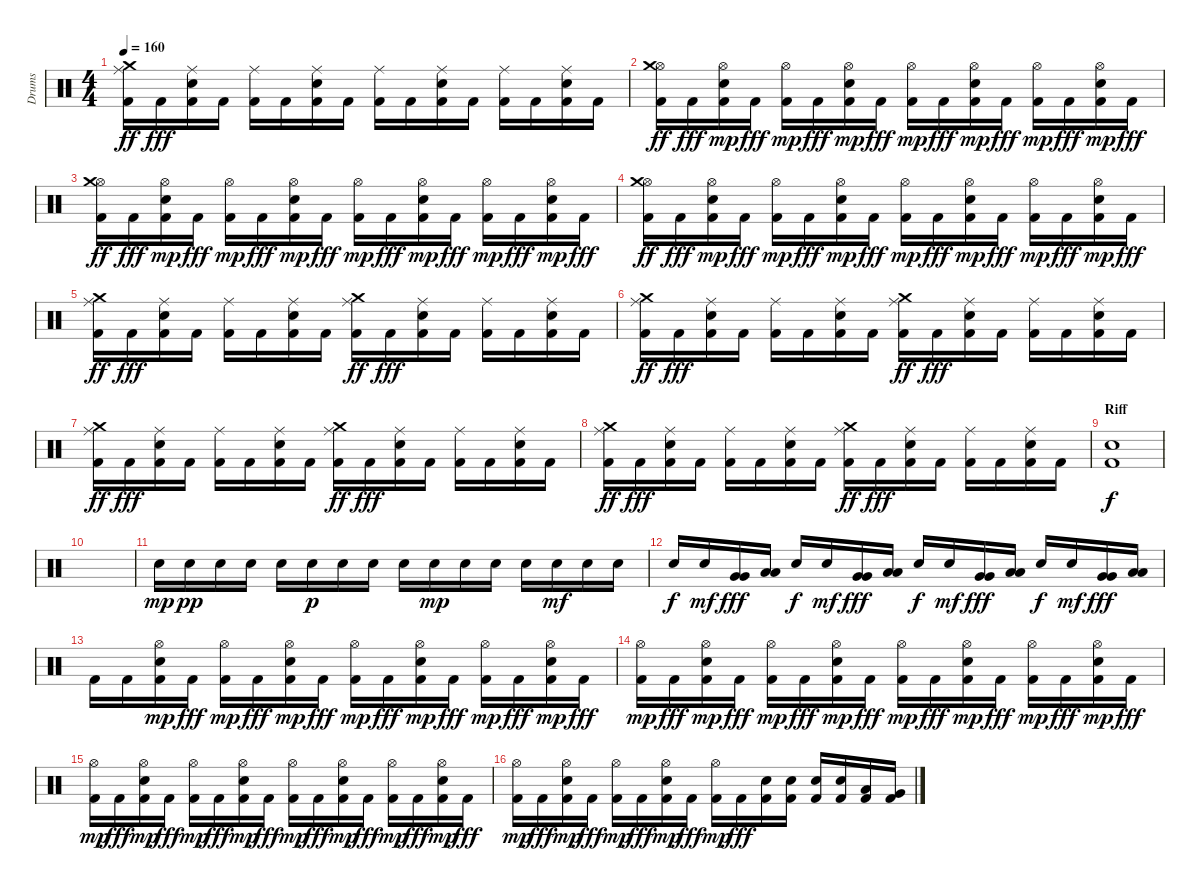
\track ("Drums" "Drums") {instrument percussion}
\staff {score}
\articulation defaults
\ts (4 4)
\tempo 160
\clef neutral
\ks c
("Kick (hit) 2" "Ride (middle)" "Crash medium (hit)").16{dy ff} "Kick (hit) 2".16{dy fff} ("Kick (hit) 2" "Ride (middle)" "Snare (hit) 2").16 "Kick (hit) 2".16 ("Kick (hit) 2" "Ride (middle)").16 "Kick (hit) 2".16 ("Kick (hit) 2" "Ride (middle)" "Snare (hit) 2").16 "Kick (hit) 2".16 ("Kick (hit) 2" "Ride (middle)").16 "Kick (hit) 2".16 ("Kick (hit) 2" "Ride (middle)" "Snare (hit) 2").16 "Kick (hit) 2".16 ("Kick (hit) 2" "Ride (middle)").16 "Kick (hit) 2".16 ("Kick (hit) 2" "Ride (middle)" "Snare (hit) 2").16 "Kick (hit) 2".16 |
("Kick (hit) 2" "Hi-Hat (open)" "Crash medium (hit)").16{dy ff} "Kick (hit) 2".16{dy fff} ("Kick (hit) 2" "Hi-Hat (open)" "Snare (hit) 2").16{dy mp} "Kick (hit) 2".16{dy fff} ("Kick (hit) 2" "Hi-Hat (open)").16{dy mp} "Kick (hit) 2".16{dy fff} ("Kick (hit) 2" "Hi-Hat (open)" "Snare (hit) 2").16{dy mp} "Kick (hit) 2".16{dy fff} ("Kick (hit) 2" "Hi-Hat (open)").16{dy mp} "Kick (hit) 2".16{dy fff} ("Kick (hit) 2" "Hi-Hat (open)" "Snare (hit) 2").16{dy mp} "Kick (hit) 2".16{dy fff} ("Kick (hit) 2" "Hi-Hat (open)").16{dy mp} "Kick (hit) 2".16{dy fff} ("Kick (hit) 2" "Hi-Hat (open)" "Snare (hit) 2").16{dy mp} "Kick (hit) 2".16{dy fff} |
("Kick (hit) 2" "Hi-Hat (open)" "Crash medium (hit)").16{dy ff} "Kick (hit) 2".16{dy fff} ("Kick (hit) 2" "Hi-Hat (open)" "Snare (hit) 2").16{dy mp} "Kick (hit) 2".16{dy fff} ("Kick (hit) 2" "Hi-Hat (open)").16{dy mp} "Kick (hit) 2".16{dy fff} ("Kick (hit) 2" "Hi-Hat (open)" "Snare (hit) 2").16{dy mp} "Kick (hit) 2".16{dy fff} ("Kick (hit) 2" "Hi-Hat (open)").16{dy mp} "Kick (hit) 2".16{dy fff} ("Kick (hit) 2" "Hi-Hat (open)" "Snare (hit) 2").16{dy mp} "Kick (hit) 2".16{dy fff} ("Kick (hit) 2" "Hi-Hat (open)").16{dy mp} "Kick (hit) 2".16{dy fff} ("Kick (hit) 2" "Hi-Hat (open)" "Snare (hit) 2").16{dy mp} "Kick (hit) 2".16{dy fff} |
("Kick (hit) 2" "Hi-Hat (open)" "Crash medium (hit)").16{dy ff} "Kick (hit) 2".16{dy fff} ("Kick (hit) 2" "Hi-Hat (open)" "Snare (hit) 2").16{dy mp} "Kick (hit) 2".16{dy fff} ("Kick (hit) 2" "Hi-Hat (open)").16{dy mp} "Kick (hit) 2".16{dy fff} ("Kick (hit) 2" "Hi-Hat (open)" "Snare (hit) 2").16{dy mp} "Kick (hit) 2".16{dy fff} ("Kick (hit) 2" "Hi-Hat (open)").16{dy mp} "Kick (hit) 2".16{dy fff} ("Kick (hit) 2" "Hi-Hat (open)" "Snare (hit) 2").16{dy mp} "Kick (hit) 2".16{dy fff} ("Kick (hit) 2" "Hi-Hat (open)").16{dy mp} "Kick (hit) 2".16{dy fff} ("Kick (hit) 2" "Hi-Hat (open)" "Snare (hit) 2").16{dy mp} "Kick (hit) 2".16{dy fff} |
("Kick (hit) 2" "Ride (middle)" "Crash medium (hit)").16{dy ff} "Kick (hit) 2".16{dy fff} ("Kick (hit) 2" "Ride (middle)" "Snare (hit) 2").16 "Kick (hit) 2".16 ("Kick (hit) 2" "Ride (middle)").16 "Kick (hit) 2".16 ("Kick (hit) 2" "Ride (middle)" "Snare (hit) 2").16 "Kick (hit) 2".16 ("Kick (hit) 2" "Ride (middle)" "Crash medium (hit)").16{dy ff} "Kick (hit) 2".16{dy fff} ("Kick (hit) 2" "Ride (middle)" "Snare (hit) 2").16 "Kick (hit) 2".16 ("Kick (hit) 2" "Ride (middle)").16 "Kick (hit) 2".16 ("Kick (hit) 2" "Ride (middle)" "Snare (hit) 2").16 "Kick (hit) 2".16 |
("Kick (hit) 2" "Ride (middle)" "Crash medium (hit)").16{dy ff} "Kick (hit) 2".16{dy fff} ("Kick (hit) 2" "Ride (middle)" "Snare (hit) 2").16 "Kick (hit) 2".16 ("Kick (hit) 2" "Ride (middle)").16 "Kick (hit) 2".16 ("Kick (hit) 2" "Ride (middle)" "Snare (hit) 2").16 "Kick (hit) 2".16 ("Kick (hit) 2" "Ride (middle)" "Crash medium (hit)").16{dy ff} "Kick (hit) 2".16{dy fff} ("Kick (hit) 2" "Ride (middle)" "Snare (hit) 2").16 "Kick (hit) 2".16 ("Kick (hit) 2" "Ride (middle)").16 "Kick (hit) 2".16 ("Kick (hit) 2" "Ride (middle)" "Snare (hit) 2").16 "Kick (hit) 2".16 |
("Kick (hit) 2" "Ride (middle)" "Crash medium (hit)").16{dy ff} "Kick (hit) 2".16{dy fff} ("Kick (hit) 2" "Ride (middle)" "Snare (hit) 2").16 "Kick (hit) 2".16 ("Kick (hit) 2" "Ride (middle)").16 "Kick (hit) 2".16 ("Kick (hit) 2" "Ride (middle)" "Snare (hit) 2").16 "Kick (hit) 2".16 ("Kick (hit) 2" "Ride (middle)" "Crash medium (hit)").16{dy ff} "Kick (hit) 2".16{dy fff} ("Kick (hit) 2" "Ride (middle)" "Snare (hit) 2").16 "Kick (hit) 2".16 ("Kick (hit) 2" "Ride (middle)").16 "Kick (hit) 2".16 ("Kick (hit) 2" "Ride (middle)" "Snare (hit) 2").16 "Kick (hit) 2".16 |
("Kick (hit) 2" "Ride (middle)" "Crash medium (hit)").16{dy ff} "Kick (hit) 2".16{dy fff} ("Kick (hit) 2" "Ride (middle)" "Snare (hit) 2").16 "Kick (hit) 2".16 ("Kick (hit) 2" "Ride (middle)").16 "Kick (hit) 2".16 ("Kick (hit) 2" "Ride (middle)" "Snare (hit) 2").16 "Kick (hit) 2".16 ("Kick (hit) 2" "Ride (middle)" "Crash medium (hit)").16{dy ff} "Kick (hit) 2".16{dy fff} ("Kick (hit) 2" "Ride (middle)" "Snare (hit) 2").16 "Kick (hit) 2".16 ("Kick (hit) 2" "Ride (middle)").16 "Kick (hit) 2".16 ("Kick (hit) 2" "Ride (middle)" "Snare (hit) 2").16 "Kick (hit) 2".16 |
\section ("" "Riff")
("Kick (hit) 2" "Snare (hit) 2").1{dy f} |
|
"Snare (hit) 2".16{dy mp} "Snare (hit) 2".16{dy pp} "Snare (hit) 2".16 "Snare (hit) 2".16 "Snare (hit) 2".16 "Snare (hit) 2".16{dy p} "Snare (hit) 2".16 "Snare (hit) 2".16 "Snare (hit) 2".16 "Snare (hit) 2".16{dy mp} "Snare (hit) 2".16 "Snare (hit) 2".16 "Snare (hit) 2".16 "Snare (hit) 2".16{dy mf} "Snare (hit) 2".16 "Snare (hit) 2".16 |
"Snare (hit) 2".16{dy f} "Snare (hit) 2".16{dy mf} ("Very Low Tom (hit)" "Very Low Tom (hit)").16{dy fff} ("Low Floor Tom (hit)" "Low Floor Tom (hit)").16 "Snare (hit) 2".16{dy f} "Snare (hit) 2".16{dy mf} ("Very Low Tom (hit)" "Very Low Tom (hit)").16{dy fff} ("Low Floor Tom (hit)" "Low Floor Tom (hit)").16 "Snare (hit) 2".16{dy f} "Snare (hit) 2".16{dy mf} ("Very Low Tom (hit)" "Very Low Tom (hit)").16{dy fff} ("Low Floor Tom (hit)" "Low Floor Tom (hit)").16 "Snare (hit) 2".16{dy f} "Snare (hit) 2".16{dy mf} ("Very Low Tom (hit)" "Very Low Tom (hit)").16{dy fff} ("Low Floor Tom (hit)" "Low Floor Tom (hit)").16 |
"Kick (hit) 2".16 "Kick (hit) 2".16 ("Kick (hit) 2" "Hi-Hat (open)" "Snare (hit) 2").16{dy mp} "Kick (hit) 2".16{dy fff} ("Kick (hit) 2" "Hi-Hat (open)").16{dy mp} "Kick (hit) 2".16{dy fff} ("Kick (hit) 2" "Hi-Hat (open)" "Snare (hit) 2").16{dy mp} "Kick (hit) 2".16{dy fff} ("Kick (hit) 2" "Hi-Hat (open)").16{dy mp} "Kick (hit) 2".16{dy fff} ("Kick (hit) 2" "Hi-Hat (open)" "Snare (hit) 2").16{dy mp} "Kick (hit) 2".16{dy fff} ("Kick (hit) 2" "Hi-Hat (open)").16{dy mp} "Kick (hit) 2".16{dy fff} ("Kick (hit) 2" "Hi-Hat (open)" "Snare (hit) 2").16{dy mp} "Kick (hit) 2".16{dy fff} |
("Kick (hit) 2" "Hi-Hat (open)").16{dy mp} "Kick (hit) 2".16{dy fff} ("Kick (hit) 2" "Hi-Hat (open)" "Snare (hit) 2").16{dy mp} "Kick (hit) 2".16{dy fff} ("Kick (hit) 2" "Hi-Hat (open)").16{dy mp} "Kick (hit) 2".16{dy fff} ("Kick (hit) 2" "Hi-Hat (open)" "Snare (hit) 2").16{dy mp} "Kick (hit) 2".16{dy fff} ("Kick (hit) 2" "Hi-Hat (open)").16{dy mp} "Kick (hit) 2".16{dy fff} ("Kick (hit) 2" "Hi-Hat (open)" "Snare (hit) 2").16{dy mp} "Kick (hit) 2".16{dy fff} ("Kick (hit) 2" "Hi-Hat (open)").16{dy mp} "Kick (hit) 2".16{dy fff} ("Kick (hit) 2" "Hi-Hat (open)" "Snare (hit) 2").16{dy mp} "Kick (hit) 2".16{dy fff} |
("Kick (hit) 2" "Hi-Hat (open)").16{dy mp} "Kick (hit) 2".16{dy fff} ("Kick (hit) 2" "Hi-Hat (open)" "Snare (hit) 2").16{dy mp} "Kick (hit) 2".16{dy fff} ("Kick (hit) 2" "Hi-Hat (open)").16{dy mp} "Kick (hit) 2".16{dy fff} ("Kick (hit) 2" "Hi-Hat (open)" "Snare (hit) 2").16{dy mp} "Kick (hit) 2".16{dy fff} ("Kick (hit) 2" "Hi-Hat (open)").16{dy mp} "Kick (hit) 2".16{dy fff} ("Kick (hit) 2" "Hi-Hat (open)" "Snare (hit) 2").16{dy mp} "Kick (hit) 2".16{dy fff} ("Kick (hit) 2" "Hi-Hat (open)").16{dy mp} "Kick (hit) 2".16{dy fff} ("Kick (hit) 2" "Hi-Hat (open)" "Snare (hit) 2").16{dy mp} "Kick (hit) 2".16{dy fff} |
("Kick (hit) 2" "Hi-Hat (open)").16{dy mp} "Kick (hit) 2".16{dy fff} ("Kick (hit) 2" "Hi-Hat (open)" "Snare (hit) 2").16{dy mp} "Kick (hit) 2".16{dy fff} ("Kick (hit) 2" "Hi-Hat (open)").16{dy mp} "Kick (hit) 2".16{dy fff} ("Kick (hit) 2" "Hi-Hat (open)" "Snare (hit) 2").16{dy mp} "Kick (hit) 2".16{dy fff} ("Kick (hit) 2" "Hi-Hat (open)").16{dy mp} "Kick (hit) 2".16{dy fff} ("Kick (hit) 2" "Snare (hit) 2").16 ("Kick (hit) 2" "Snare (hit) 2").16 ("Kick (hit) 2" "Snare (hit) 2").16 ("Kick (hit) 2" "Snare (hit) 2").16 ("Kick (hit) 2" "Low Tom (hit)").16 ("Kick (hit) 2" "Very Low Tom (hit)").16
